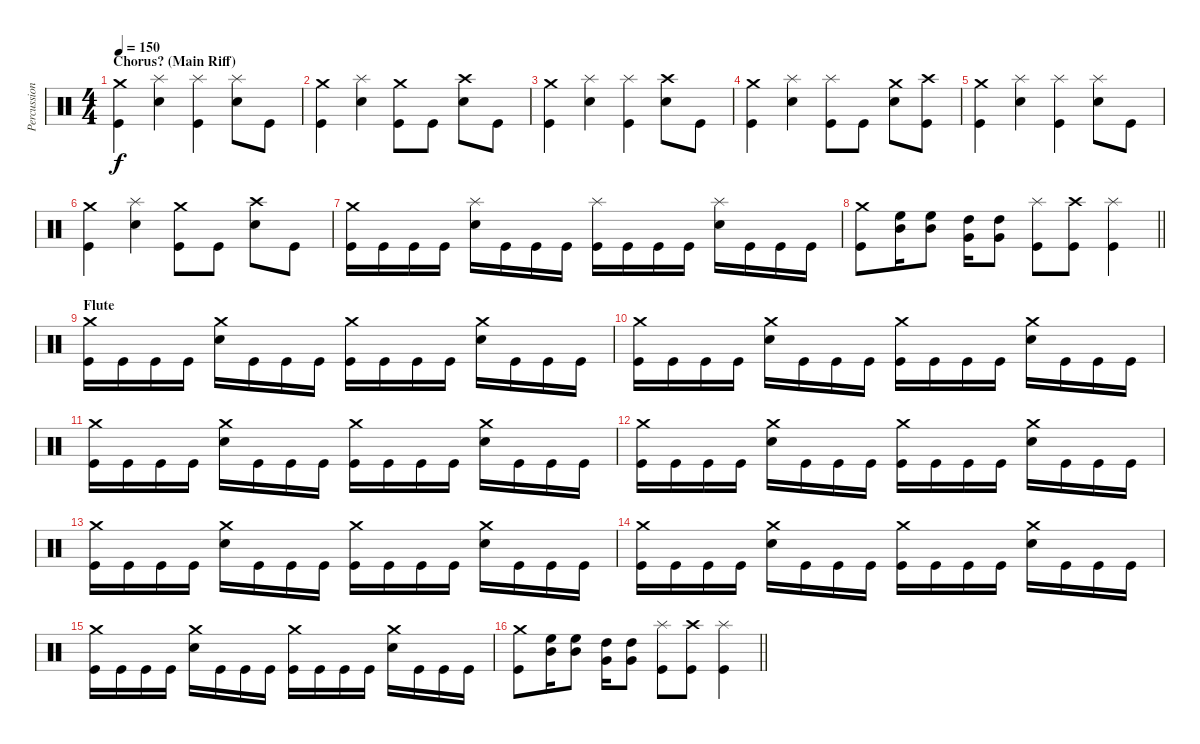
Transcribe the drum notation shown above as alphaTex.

\track ("Percussion" "Percussion") {instrument percussion}
\staff {score}
\articulation defaults
\ts (4 4)
\section ("" "Chorus? (Main Riff)")
\tempo 150
\clef neutral
\ks c
("Crash medium (hit)" "Kick (hit)").4{dy f} ("Splash (hit)" "Snare (hit) 2").4 ("Splash (hit)" "Kick (hit)").4 ("Splash (hit)" "Snare (hit) 2").8 "Kick (hit)".8 |
("Crash medium (hit)" "Kick (hit)").4 ("Splash (hit)" "Snare (hit) 2").4 ("Crash medium (hit)" "Kick (hit)").8 "Kick (hit)".8 ("Crash high (hit)" "Snare (hit) 2").8 "Kick (hit)".8 |
("Crash medium (hit)" "Kick (hit)").4 ("Splash (hit)" "Snare (hit) 2").4 ("Splash (hit)" "Kick (hit)").4 ("Crash high (hit)" "Snare (hit) 2").8 "Kick (hit)".8 |
("Crash medium (hit)" "Kick (hit)").4 ("Splash (hit)" "Snare (hit) 2").4 ("Splash (hit)" "Kick (hit)").8 "Kick (hit)".8 ("Crash medium (hit)" "Snare (hit) 2").8 ("Crash high (hit)" "Kick (hit)").8 |
("Crash medium (hit)" "Kick (hit)").4 ("Splash (hit)" "Snare (hit) 2").4 ("Splash (hit)" "Kick (hit)").4 ("Splash (hit)" "Snare (hit) 2").8 "Kick (hit)".8 |
("Crash medium (hit)" "Kick (hit)").4 ("Splash (hit)" "Snare (hit) 2").4 ("Crash medium (hit)" "Kick (hit)").8 "Kick (hit)".8 ("Crash high (hit)" "Snare (hit) 2").8 "Kick (hit)".8 |
("Crash medium (hit)" "Kick (hit)").16 "Kick (hit)".16 "Kick (hit)".16 "Kick (hit)".16 ("Splash (hit)" "Snare (hit) 2").16 "Kick (hit)".16 "Kick (hit)".16 "Kick (hit)".16 ("Splash (hit)" "Kick (hit)").16 "Kick (hit)".16 "Kick (hit)".16 "Kick (hit)".16 ("Splash (hit)" "Snare (hit) 2").16 "Kick (hit)".16 "Kick (hit)".16 "Kick (hit)".16 |
\barLineRight lightlight
("Crash medium (hit)" "Kick (hit)").8 ("High Floor Tom (hit)" "Mid Tom (hit)").16 ("High Floor Tom (hit)" "Mid Tom (hit)").8 ("High Tom (hit)" "Very Low Tom (hit)").16 ("High Tom (hit)" "Very Low Tom (hit)").8 ("Splash (hit)" "Kick (hit)").8 ("Crash high (hit)" "Kick (hit)").8 ("Splash (hit)" "Kick (hit)").4 |
\section ("" "Flute")
("Crash medium (hit)" "Kick (hit)").16 "Kick (hit)".16 "Kick (hit)".16 "Kick (hit)".16 ("Crash medium (hit)" "Snare (hit) 2").16 "Kick (hit)".16 "Kick (hit)".16 "Kick (hit)".16 ("Crash medium (hit)" "Kick (hit)").16 "Kick (hit)".16 "Kick (hit)".16 "Kick (hit)".16 ("Crash medium (hit)" "Snare (hit) 2").16 "Kick (hit)".16 "Kick (hit)".16 "Kick (hit)".16 |
("Crash medium (hit)" "Kick (hit)").16 "Kick (hit)".16 "Kick (hit)".16 "Kick (hit)".16 ("Crash medium (hit)" "Snare (hit) 2").16 "Kick (hit)".16 "Kick (hit)".16 "Kick (hit)".16 ("Crash medium (hit)" "Kick (hit)").16 "Kick (hit)".16 "Kick (hit)".16 "Kick (hit)".16 ("Crash medium (hit)" "Snare (hit) 2").16 "Kick (hit)".16 "Kick (hit)".16 "Kick (hit)".16 |
("Crash medium (hit)" "Kick (hit)").16 "Kick (hit)".16 "Kick (hit)".16 "Kick (hit)".16 ("Crash medium (hit)" "Snare (hit) 2").16 "Kick (hit)".16 "Kick (hit)".16 "Kick (hit)".16 ("Crash medium (hit)" "Kick (hit)").16 "Kick (hit)".16 "Kick (hit)".16 "Kick (hit)".16 ("Crash medium (hit)" "Snare (hit) 2").16 "Kick (hit)".16 "Kick (hit)".16 "Kick (hit)".16 |
("Crash medium (hit)" "Kick (hit)").16 "Kick (hit)".16 "Kick (hit)".16 "Kick (hit)".16 ("Crash medium (hit)" "Snare (hit) 2").16 "Kick (hit)".16 "Kick (hit)".16 "Kick (hit)".16 ("Crash medium (hit)" "Kick (hit)").16 "Kick (hit)".16 "Kick (hit)".16 "Kick (hit)".16 ("Crash medium (hit)" "Snare (hit) 2").16 "Kick (hit)".16 "Kick (hit)".16 "Kick (hit)".16 |
("Crash medium (hit)" "Kick (hit)").16 "Kick (hit)".16 "Kick (hit)".16 "Kick (hit)".16 ("Crash medium (hit)" "Snare (hit) 2").16 "Kick (hit)".16 "Kick (hit)".16 "Kick (hit)".16 ("Crash medium (hit)" "Kick (hit)").16 "Kick (hit)".16 "Kick (hit)".16 "Kick (hit)".16 ("Crash medium (hit)" "Snare (hit) 2").16 "Kick (hit)".16 "Kick (hit)".16 "Kick (hit)".16 |
("Crash medium (hit)" "Kick (hit)").16 "Kick (hit)".16 "Kick (hit)".16 "Kick (hit)".16 ("Crash medium (hit)" "Snare (hit) 2").16 "Kick (hit)".16 "Kick (hit)".16 "Kick (hit)".16 ("Crash medium (hit)" "Kick (hit)").16 "Kick (hit)".16 "Kick (hit)".16 "Kick (hit)".16 ("Crash medium (hit)" "Snare (hit) 2").16 "Kick (hit)".16 "Kick (hit)".16 "Kick (hit)".16 |
("Crash medium (hit)" "Kick (hit)").16 "Kick (hit)".16 "Kick (hit)".16 "Kick (hit)".16 ("Crash medium (hit)" "Snare (hit) 2").16 "Kick (hit)".16 "Kick (hit)".16 "Kick (hit)".16 ("Crash medium (hit)" "Kick (hit)").16 "Kick (hit)".16 "Kick (hit)".16 "Kick (hit)".16 ("Crash medium (hit)" "Snare (hit) 2").16 "Kick (hit)".16 "Kick (hit)".16 "Kick (hit)".16 |
\barLineRight lightlight
("Crash medium (hit)" "Kick (hit)").8 ("High Floor Tom (hit)" "Mid Tom (hit)").16 ("High Floor Tom (hit)" "Mid Tom (hit)").8 ("High Tom (hit)" "Very Low Tom (hit)").16 ("High Tom (hit)" "Very Low Tom (hit)").8 ("Splash (hit)" "Kick (hit)").8 ("Crash high (hit)" "Kick (hit)").8 ("Splash (hit)" "Kick (hit)").4
